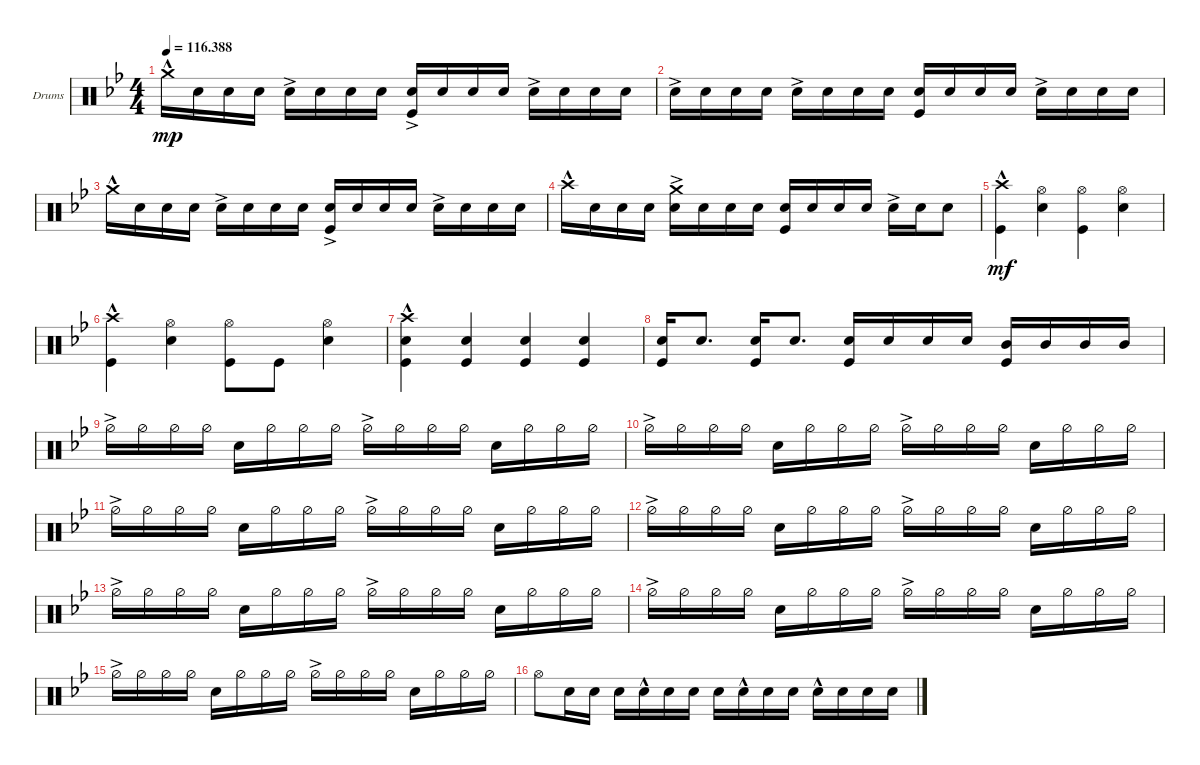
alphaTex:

\bracketExtendMode groupsimilarinstruments
\firstSystemTrackNameOrientation horizontal
\otherSystemsTrackNameOrientation horizontal
\track ("Drumkit" "Drums") {instrument percussion}
\staff {score}
\articulation defaults
\ts (4 4)
\tempo
116.388
\accidentals auto
\clef neutral
\ottava regular
\simile none
\ks gminor "Crash medium (hit)"{hac}.16{dy mp} "Snare (hit) 2".16 "Snare (hit) 2".16 "Snare (hit) 2".16 "Snare (hit) 2"{ac}.16 "Snare (hit) 2".16 "Snare (hit) 2".16 "Snare (hit) 2".16
("Kick (hit)" "Snare (hit) 2"{ac}).16 "Snare (hit) 2".16 "Snare (hit) 2".16 "Snare (hit) 2".16 "Snare (hit) 2"{ac}.16 "Snare (hit) 2".16 "Snare (hit) 2".16 "Snare (hit) 2".16 |
"Snare (hit) 2"{ac}.16 "Snare (hit) 2".16 "Snare (hit) 2".16 "Snare (hit) 2".16 "Snare (hit) 2"{ac}.16 "Snare (hit) 2".16 "Snare (hit) 2".16 "Snare (hit) 2".16 ("Kick (hit)" "Snare (hit) 2").16 "Snare (hit) 2".16 "Snare (hit) 2".16 "Snare (hit) 2".16 "Snare (hit) 2"{ac}.16 "Snare (hit) 2".16 "Snare (hit) 2".16 "Snare (hit) 2".16 |
"Crash medium (hit)"{hac}.16 "Snare (hit) 2".16 "Snare (hit) 2".16 "Snare (hit) 2".16 "Snare (hit) 2"{ac}.16 "Snare (hit) 2".16 "Snare (hit) 2".16 "Snare (hit) 2".16 ("Kick (hit)" "Snare (hit) 2"{ac}).16 "Snare (hit) 2".16 "Snare (hit) 2".16 "Snare (hit) 2".16 "Snare (hit) 2"{ac}.16 "Snare (hit) 2".16 "Snare (hit) 2".16 "Snare (hit) 2".16 |
"Crash high (hit)"{hac}.16 "Snare (hit) 2".16 "Snare (hit) 2".16 "Snare (hit) 2".16 ("Snare (hit) 2"{ac} "Crash medium (hit)").16 "Snare (hit) 2".16 "Snare (hit) 2".16 "Snare (hit) 2".16 ("Kick (hit)" "Snare (hit) 2").16 "Snare (hit) 2".16 "Snare (hit) 2".16 "Snare (hit) 2".16 "Snare (hit) 2"{ac}.16 "Snare (hit) 2".16 "Snare (hit) 2".8 |
("Crash high (hit)"{hac} "Kick (hit)").4{dy mf} ("Hi-Hat (open)" "Snare (hit) 2").4 ("Hi-Hat (open)" "Kick (hit)").4 ("Hi-Hat (open)" "Snare (hit) 2").4 |
("Crash high (hit)"{hac} "Kick (hit)").4 ("Hi-Hat (open)" "Snare (hit) 2").4 ("Kick (hit)" "Hi-Hat (open)").8 "Kick (hit)".8 ("Hi-Hat (open)" "Snare (hit) 2").4 |
("Crash high (hit)"{hac} "Snare (hit) 2" "Kick (hit)").4 ("Snare (hit) 2" "Kick (hit)").4 ("Snare (hit) 2" "Kick (hit)").4 ("Snare (hit) 2" "Kick (hit)").4 |
("Snare (hit) 2" "Kick (hit)").16 "Snare (hit) 2".8{d} ("Snare (hit) 2" "Kick (hit)").16 "Snare (hit) 2".8{d} ("Snare (hit) 2" "Kick (hit)").16 "Snare (hit) 2".16 "Snare (hit) 2".16 "Snare (hit) 2".16 ("Mid Tom (hit)" "Kick (hit)").16 "Mid Tom (hit)".16 "Mid Tom (hit)".16 "Mid Tom (hit)".16 |
"Hi-Hat (half)"{ac}.16 "Hi-Hat (half)".16 "Hi-Hat (half)".16 "Hi-Hat (half)".16 "Snare (hit) 2".16 "Hi-Hat (half)".16 "Hi-Hat (half)".16 "Hi-Hat (half)".16 "Hi-Hat (half)"{ac}.16 "Hi-Hat (half)".16 "Hi-Hat (half)".16 "Hi-Hat (half)".16 "Snare (hit) 2".16 "Hi-Hat (half)".16 "Hi-Hat (half)".16 "Hi-Hat (half)".16 |
"Hi-Hat (half)"{ac}.16 "Hi-Hat (half)".16 "Hi-Hat (half)".16 "Hi-Hat (half)".16 "Snare (hit) 2".16 "Hi-Hat (half)".16 "Hi-Hat (half)".16 "Hi-Hat (half)".16 "Hi-Hat (half)"{ac}.16 "Hi-Hat (half)".16 "Hi-Hat (half)".16 "Hi-Hat (half)".16 "Snare (hit) 2".16 "Hi-Hat (half)".16 "Hi-Hat (half)".16 "Hi-Hat (half)".16 |
"Hi-Hat (half)"{ac}.16 "Hi-Hat (half)".16 "Hi-Hat (half)".16 "Hi-Hat (half)".16 "Snare (hit) 2".16 "Hi-Hat (half)".16 "Hi-Hat (half)".16 "Hi-Hat (half)".16 "Hi-Hat (half)"{ac}.16 "Hi-Hat (half)".16 "Hi-Hat (half)".16 "Hi-Hat (half)".16 "Snare (hit) 2".16 "Hi-Hat (half)".16 "Hi-Hat (half)".16 "Hi-Hat (half)".16 |
"Hi-Hat (half)"{ac}.16 "Hi-Hat (half)".16 "Hi-Hat (half)".16 "Hi-Hat (half)".16 "Snare (hit) 2".16 "Hi-Hat (half)".16 "Hi-Hat (half)".16 "Hi-Hat (half)".16 "Hi-Hat (half)"{ac}.16 "Hi-Hat (half)".16 "Hi-Hat (half)".16 "Hi-Hat (half)".16 "Snare (hit) 2".16 "Hi-Hat (half)".16 "Hi-Hat (half)".16 "Hi-Hat (half)".16 |
"Hi-Hat (half)"{ac}.16 "Hi-Hat (half)".16 "Hi-Hat (half)".16 "Hi-Hat (half)".16 "Snare (hit) 2".16 "Hi-Hat (half)".16 "Hi-Hat (half)".16 "Hi-Hat (half)".16 "Hi-Hat (half)"{ac}.16 "Hi-Hat (half)".16 "Hi-Hat (half)".16 "Hi-Hat (half)".16 "Snare (hit) 2".16 "Hi-Hat (half)".16 "Hi-Hat (half)".16 "Hi-Hat (half)".16 |
"Hi-Hat (half)"{ac}.16 "Hi-Hat (half)".16 "Hi-Hat (half)".16 "Hi-Hat (half)".16 "Snare (hit) 2".16 "Hi-Hat (half)".16 "Hi-Hat (half)".16 "Hi-Hat (half)".16 "Hi-Hat (half)"{ac}.16 "Hi-Hat (half)".16 "Hi-Hat (half)".16 "Hi-Hat (half)".16 "Snare (hit) 2".16 "Hi-Hat (half)".16 "Hi-Hat (half)".16 "Hi-Hat (half)".16 |
"Hi-Hat (half)"{ac}.16 "Hi-Hat (half)".16 "Hi-Hat (half)".16 "Hi-Hat (half)".16 "Snare (hit) 2".16 "Hi-Hat (half)".16 "Hi-Hat (half)".16 "Hi-Hat (half)".16 "Hi-Hat (half)"{ac}.16 "Hi-Hat (half)".16 "Hi-Hat (half)".16 "Hi-Hat (half)".16 "Snare (hit) 2".16 "Hi-Hat (half)".16 "Hi-Hat (half)".16 "Hi-Hat (half)".16 |
"Hi-Hat (open)".8 "Snare (hit) 2".16 "Snare (hit) 2".16 "Snare (hit) 2".16 "Snare (hit) 2"{hac}.16 "Snare (hit) 2".16 "Snare (hit) 2".16 "Snare (hit) 2".16 "Snare (hit) 2"{hac}.16 "Snare (hit) 2".16 "Snare (hit) 2".16 "Snare (hit) 2"{hac}.16 "Snare (hit) 2".16 "Snare (hit) 2".16 "Snare (hit) 2".16
